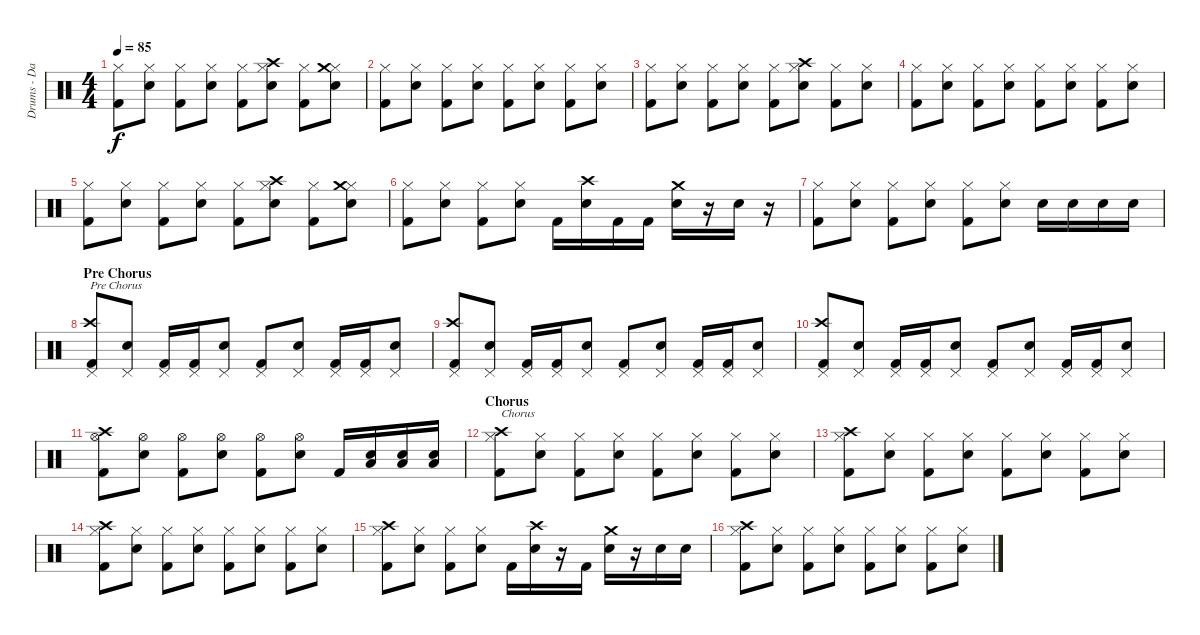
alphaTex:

\track ("Drums - Daniel Zimmermann" "Drums - Da") {instrument percussion}
\staff {score}
\articulation defaults
\ts (4 4)
\tempo 85
\clef neutral
\ks c
("Hi-Hat (closed)" "Kick (hit) 2").8{dy f} ("Hi-Hat (closed)" "Snare (hit) 2").8 ("Hi-Hat (closed)" "Kick (hit) 2").8 ("Hi-Hat (closed)" "Snare (hit) 2").8 ("Hi-Hat (closed)" "Kick (hit) 2").8 ("Hi-Hat (closed)" "Snare (hit) 2" "Crash high (hit)").8 ("Hi-Hat (closed)" "Kick (hit) 2").8 ("Hi-Hat (closed)" "Snare (hit) 2" "Crash medium (hit)").8 |
("Hi-Hat (closed)" "Kick (hit) 2").8 ("Hi-Hat (closed)" "Snare (hit) 2").8 ("Hi-Hat (closed)" "Kick (hit) 2").8 ("Hi-Hat (closed)" "Snare (hit) 2").8 ("Hi-Hat (closed)" "Kick (hit) 2").8 ("Hi-Hat (closed)" "Snare (hit) 2").8 ("Hi-Hat (closed)" "Kick (hit) 2").8 ("Hi-Hat (closed)" "Snare (hit) 2").8 |
("Hi-Hat (closed)" "Kick (hit) 2").8 ("Hi-Hat (closed)" "Snare (hit) 2").8 ("Hi-Hat (closed)" "Kick (hit) 2").8 ("Hi-Hat (closed)" "Snare (hit) 2").8 ("Hi-Hat (closed)" "Kick (hit) 2").8 ("Hi-Hat (closed)" "Snare (hit) 2" "Crash high (hit)").8 ("Hi-Hat (closed)" "Kick (hit) 2").8 ("Hi-Hat (closed)" "Snare (hit) 2").8 |
("Hi-Hat (closed)" "Kick (hit) 2").8 ("Hi-Hat (closed)" "Snare (hit) 2").8 ("Hi-Hat (closed)" "Kick (hit) 2").8 ("Hi-Hat (closed)" "Snare (hit) 2").8 ("Hi-Hat (closed)" "Kick (hit) 2").8 ("Hi-Hat (closed)" "Snare (hit) 2").8 ("Hi-Hat (closed)" "Kick (hit) 2").8 ("Hi-Hat (closed)" "Snare (hit) 2").8 |
("Hi-Hat (closed)" "Kick (hit) 2").8 ("Hi-Hat (closed)" "Snare (hit) 2").8 ("Hi-Hat (closed)" "Kick (hit) 2").8 ("Hi-Hat (closed)" "Snare (hit) 2").8 ("Hi-Hat (closed)" "Kick (hit) 2").8 ("Hi-Hat (closed)" "Snare (hit) 2" "Crash high (hit)").8 ("Hi-Hat (closed)" "Kick (hit) 2").8 ("Hi-Hat (closed)" "Snare (hit) 2" "Crash medium (hit)").8 |
("Hi-Hat (closed)" "Kick (hit) 2").8 ("Hi-Hat (closed)" "Snare (hit) 2").8 ("Hi-Hat (closed)" "Kick (hit) 2").8 ("Hi-Hat (closed)" "Snare (hit) 2").8 "Kick (hit) 2".16 ("Snare (hit) 2" "Crash high (hit)").16 "Kick (hit) 2".16 "Kick (hit) 2".16 ("Snare (hit) 2" "Crash medium (hit)").16 r.16 "Snare (hit) 2".16 r.16 |
("Hi-Hat (closed)" "Kick (hit) 2").8 ("Hi-Hat (closed)" "Snare (hit) 2").8 ("Hi-Hat (closed)" "Kick (hit) 2").8 ("Hi-Hat (closed)" "Snare (hit) 2").8 ("Hi-Hat (closed)" "Kick (hit) 2").8 ("Hi-Hat (closed)" "Snare (hit) 2").8 "Snare (hit) 2".16 "Snare (hit) 2".16 "Snare (hit) 2".16 "Snare (hit) 2".16 |
\section ("" "Pre Chorus")
("Pedal Hi-Hat (hit)" "Kick (hit) 2" "Crash high (hit)").8{txt "Pre Chorus"} ("Pedal Hi-Hat (hit)" "Snare (hit) 2").8 ("Pedal Hi-Hat (hit)" "Kick (hit) 2").16 ("Pedal Hi-Hat (hit)" "Kick (hit) 2").16 ("Pedal Hi-Hat (hit)" "Snare (hit) 2").8 ("Pedal Hi-Hat (hit)" "Kick (hit) 2").8 ("Pedal Hi-Hat (hit)" "Snare (hit) 2").8 ("Pedal Hi-Hat (hit)" "Kick (hit) 2").16 ("Pedal Hi-Hat (hit)" "Kick (hit) 2").16 ("Pedal Hi-Hat (hit)" "Snare (hit) 2").8 |
("Pedal Hi-Hat (hit)" "Kick (hit) 2" "Crash high (hit)").8 ("Pedal Hi-Hat (hit)" "Snare (hit) 2").8 ("Pedal Hi-Hat (hit)" "Kick (hit) 2").16 ("Pedal Hi-Hat (hit)" "Kick (hit) 2").16 ("Pedal Hi-Hat (hit)" "Snare (hit) 2").8 ("Pedal Hi-Hat (hit)" "Kick (hit) 2").8 ("Pedal Hi-Hat (hit)" "Snare (hit) 2").8 ("Pedal Hi-Hat (hit)" "Kick (hit) 2").16 ("Pedal Hi-Hat (hit)" "Kick (hit) 2").16 ("Pedal Hi-Hat (hit)" "Snare (hit) 2").8 |
("Pedal Hi-Hat (hit)" "Kick (hit) 2" "Crash high (hit)").8 ("Pedal Hi-Hat (hit)" "Snare (hit) 2").8 ("Pedal Hi-Hat (hit)" "Kick (hit) 2").16 ("Pedal Hi-Hat (hit)" "Kick (hit) 2").16 ("Pedal Hi-Hat (hit)" "Snare (hit) 2").8 ("Pedal Hi-Hat (hit)" "Kick (hit) 2").8 ("Pedal Hi-Hat (hit)" "Snare (hit) 2").8 ("Pedal Hi-Hat (hit)" "Kick (hit) 2").16 ("Pedal Hi-Hat (hit)" "Kick (hit) 2").16 ("Pedal Hi-Hat (hit)" "Snare (hit) 2").8 |
("Hi-Hat (open)" "Kick (hit) 2" "Crash high (hit)").8 ("Hi-Hat (open)" "Snare (hit) 2").8 ("Hi-Hat (open)" "Kick (hit) 2").8 ("Hi-Hat (open)" "Snare (hit) 2").8 ("Hi-Hat (open)" "Kick (hit) 2").8 ("Hi-Hat (open)" "Snare (hit) 2").8 "Kick (hit) 2".16 ("Snare (hit) 2" "Low Floor Tom (hit)").16 ("Snare (hit) 2" "Low Floor Tom (hit)").16 ("Snare (hit) 2" "Low Floor Tom (hit)").16 |
\section ("" "Chorus")
("Hi-Hat (closed)" "Kick (hit) 2" "Crash high (hit)").8{txt "Chorus"} ("Hi-Hat (closed)" "Snare (hit) 2").8 ("Hi-Hat (closed)" "Kick (hit) 2").8 ("Hi-Hat (closed)" "Snare (hit) 2").8 ("Hi-Hat (closed)" "Kick (hit) 2").8 ("Hi-Hat (closed)" "Snare (hit) 2").8 ("Hi-Hat (closed)" "Kick (hit) 2").8 ("Hi-Hat (closed)" "Snare (hit) 2").8 |
("Hi-Hat (closed)" "Kick (hit) 2" "Crash high (hit)").8 ("Hi-Hat (closed)" "Snare (hit) 2").8 ("Hi-Hat (closed)" "Kick (hit) 2").8 ("Hi-Hat (closed)" "Snare (hit) 2").8 ("Hi-Hat (closed)" "Kick (hit) 2").8 ("Hi-Hat (closed)" "Snare (hit) 2").8 ("Hi-Hat (closed)" "Kick (hit) 2").8 ("Hi-Hat (closed)" "Snare (hit) 2").8 |
("Hi-Hat (closed)" "Kick (hit) 2" "Crash high (hit)").8 ("Hi-Hat (closed)" "Snare (hit) 2").8 ("Hi-Hat (closed)" "Kick (hit) 2").8 ("Hi-Hat (closed)" "Snare (hit) 2").8 ("Hi-Hat (closed)" "Kick (hit) 2").8 ("Hi-Hat (closed)" "Snare (hit) 2").8 ("Hi-Hat (closed)" "Kick (hit) 2").8 ("Hi-Hat (closed)" "Snare (hit) 2").8 |
("Hi-Hat (closed)" "Kick (hit) 2" "Crash high (hit)").8 ("Hi-Hat (closed)" "Snare (hit) 2").8 ("Hi-Hat (closed)" "Kick (hit) 2").8 ("Hi-Hat (closed)" "Snare (hit) 2").8 "Kick (hit) 2".16 ("Snare (hit) 2" "Crash high (hit)").16 r.16 "Kick (hit) 2".16 ("Snare (hit) 2" "Crash medium (hit)").16 r.16 "Snare (hit) 2".16 "Snare (hit) 2".16 |
("Hi-Hat (closed)" "Kick (hit) 2" "Crash high (hit)").8 ("Hi-Hat (closed)" "Snare (hit) 2").8 ("Hi-Hat (closed)" "Kick (hit) 2").8 ("Hi-Hat (closed)" "Snare (hit) 2").8 ("Hi-Hat (closed)" "Kick (hit) 2").8 ("Hi-Hat (closed)" "Snare (hit) 2").8 ("Hi-Hat (closed)" "Kick (hit) 2").8 ("Hi-Hat (closed)" "Snare (hit) 2").8
